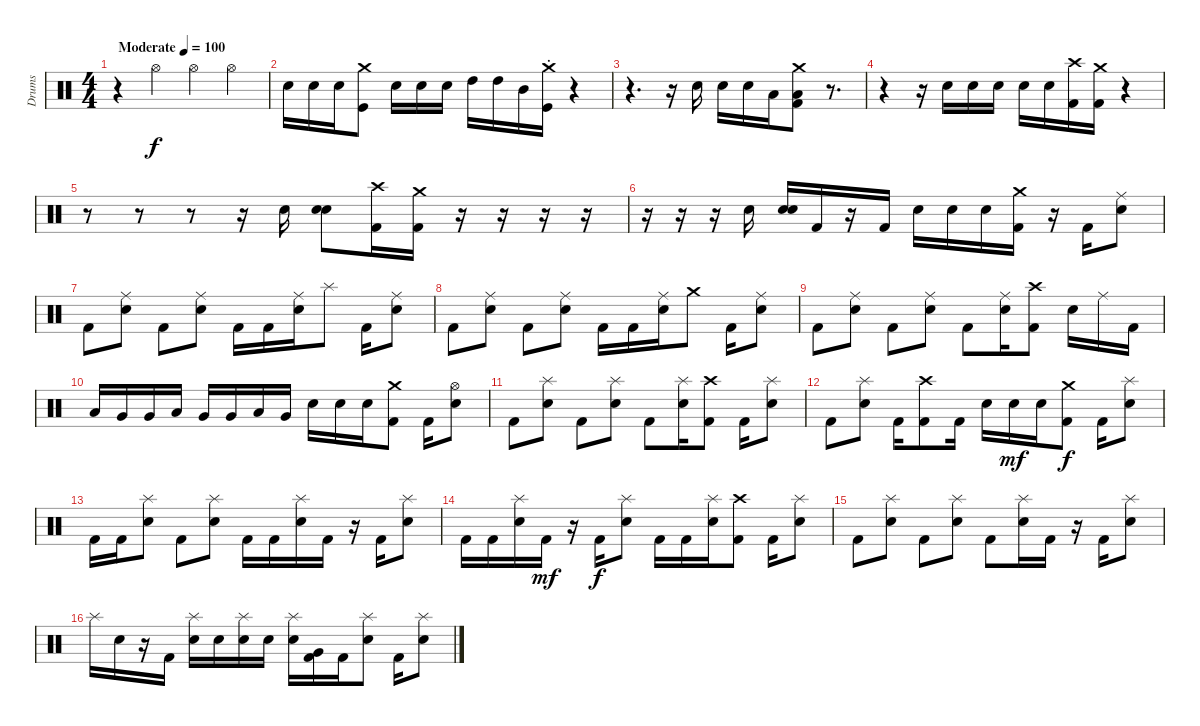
\track ("Drums" "Drums") {instrument percussion}
\staff {score}
\articulation defaults
\ts (4 4)
\tempo (100 "Moderate")
\clef neutral
\ks c
r.4{dy f} "Hi-Hat (open)".4 "Hi-Hat (open)".4 "Hi-Hat (open)".4 |
"Snare (hit) 2".16 "Snare (hit) 2".16 "Snare (hit) 2".16 ("Crash medium (hit)" "Kick (hit)").8 "Snare (hit) 2".16 "Snare (hit) 2".16 "Snare (hit) 2".16 "High Tom (hit)".16 "High Tom (hit)".16 "Mid Tom (hit)".16 ("Crash medium (hit)"{st} "Kick (hit)").16 r.4 |
r.4{d} r.16 "Snare (hit) 2".16 "Snare (hit) 2".16 "Snare (hit) 2".16 "Low Tom (hit)".16 ("Crash medium (hit)" "Low Tom (hit)" "Kick (hit) 2").8 r.8{d} |
r.4 r.16 "Snare (hit) 2".16 "Snare (hit) 2".16 "Snare (hit) 2".16 "Snare (hit) 2".16 "Snare (hit) 2".16 ("Crash high (hit)" "Kick (hit) 2").16 ("Crash medium (hit)" "Kick (hit) 2").16 r.4 |
r.8 r.8 r.8 r.16 "Snare (hit) 2".16 ("Electric Snare (hit)" "Snare (hit) 2").8 ("Crash high (hit)" "Kick (hit) 2").16 ("Crash medium (hit)" "Kick (hit) 2").16 r.16 r.16 r.16 r.16 |
r.16 r.16 r.16 "Snare (hit) 2".16 ("Snare (hit) 2" "Electric Snare (hit)").16 "Kick (hit) 2".16 r.16 "Kick (hit) 2".16 "Snare (hit) 2".16 "Snare (hit) 2".16 "Snare (hit) 2".16 ("Crash medium (hit)" "Kick (hit) 2").16 r.16 "Kick (hit) 2".16 ("Ride (middle)" "Snare (hit) 2").8 |
"Kick (hit) 2".8 ("Ride (middle)" "Snare (hit) 2").8 "Kick (hit) 2".8 ("Ride (middle)" "Snare (hit) 2").8 "Kick (hit) 2".16 "Kick (hit) 2".16 ("Ride (middle)" "Snare (hit) 2").16 "Splash (hit)".8 "Kick (hit) 2".16 ("Ride (middle)" "Snare (hit) 2").8 |
"Kick (hit) 2".8 ("Ride (middle)" "Snare (hit) 2").8 "Kick (hit) 2".8 ("Ride (middle)" "Snare (hit) 2").8 "Kick (hit) 2".16 "Kick (hit) 2".16 ("Ride (middle)" "Snare (hit) 2").16 "Crash medium (hit)".8 "Kick (hit) 2".16 ("Ride (middle)" "Snare (hit) 2").8 |
"Kick (hit) 2".8 ("Ride (middle)" "Snare (hit) 2").8 "Kick (hit) 2".8 ("Ride (middle)" "Snare (hit) 2").8 "Kick (hit) 2".8 ("Ride (middle)" "Snare (hit) 2").16 ("Crash high (hit)" "Kick (hit) 2").8 "Snare (hit) 2".16 "Ride (middle)".16 "Kick (hit) 2".16 |
"Low Tom (hit)".16 "Very Low Tom (hit)".16 "Very Low Tom (hit)".16 "Low Tom (hit)".16 "Very Low Tom (hit)".16 "Very Low Tom (hit)".16 "Low Tom (hit)".16 "Very Low Tom (hit)".16 "Snare (hit) 2".16 "Snare (hit) 2".16 "Snare (hit) 2".16 ("Crash medium (hit)" "Kick (hit) 2").8 "Kick (hit) 2".16 ("Hi-Hat (open)" "Snare (hit) 2").8 |
"Kick (hit) 2".8 ("Splash (hit)" "Snare (hit) 2").8 "Kick (hit) 2".8 ("Splash (hit)" "Snare (hit) 2").8 "Kick (hit) 2".8 ("Splash (hit)" "Snare (hit) 2").16 ("Crash high (hit)" "Kick (hit) 2").8 "Kick (hit) 2".16 ("Splash (hit)" "Snare (hit) 2").8 |
"Kick (hit) 2".8 ("Splash (hit)" "Snare (hit) 2").8 "Kick (hit) 2".16 ("Crash high (hit)" "Kick (hit) 2").8 "Kick (hit) 2".16 "Snare (hit) 2".16 "Snare (hit) 2".16{dy mf} "Snare (hit) 2".16 ("Crash medium (hit)" "Kick (hit) 2").8{dy f} "Kick (hit) 2".16 ("Splash (hit)" "Snare (hit) 2").8 |
"Kick (hit) 2".16 "Kick (hit) 2".16 ("Splash (hit)" "Snare (hit) 2").8 "Kick (hit) 2".8 ("Splash (hit)" "Snare (hit) 2").8 "Kick (hit) 2".16 "Kick (hit) 2".16 ("Splash (hit)" "Snare (hit) 2").16 "Kick (hit) 2".16 r.16 "Kick (hit) 2".16 ("Splash (hit)" "Snare (hit) 2").8 |
"Kick (hit) 2".16 "Kick (hit) 2".16 ("Splash (hit)" "Snare (hit) 2").16 "Kick (hit) 2".16{dy mf} r.16 "Kick (hit) 2".16{dy f} ("Splash (hit)" "Snare (hit) 2").8 "Kick (hit) 2".16 "Kick (hit) 2".16 ("Splash (hit)" "Snare (hit) 2").16 ("Crash high (hit)" "Kick (hit) 2").8 "Kick (hit) 2".16 ("Splash (hit)" "Snare (hit) 2").8 |
"Kick (hit) 2".8 ("Splash (hit)" "Snare (hit) 2").8 "Kick (hit) 2".8 ("Splash (hit)" "Snare (hit) 2").8 "Kick (hit) 2".8 ("Splash (hit)" "Snare (hit) 2").16 "Kick (hit) 2".16 r.16 "Kick (hit) 2".16 ("Splash (hit)" "Snare (hit) 2").8 |
"Splash (hit)".16 "Snare (hit) 2".16 r.16 "Kick (hit) 2".16 ("Splash (hit)" "Snare (hit) 2").16 "Snare (hit) 2".16 ("Splash (hit)" "Snare (hit) 2").16 "Snare (hit) 2".16 ("Splash (hit)" "Snare (hit) 2").16 ("Very Low Tom (hit)" "Kick (hit) 2").16 "Kick (hit) 2".16 ("Splash (hit)" "Snare (hit) 2").8 "Kick (hit) 2".16 ("Splash (hit)" "Snare (hit) 2").8
